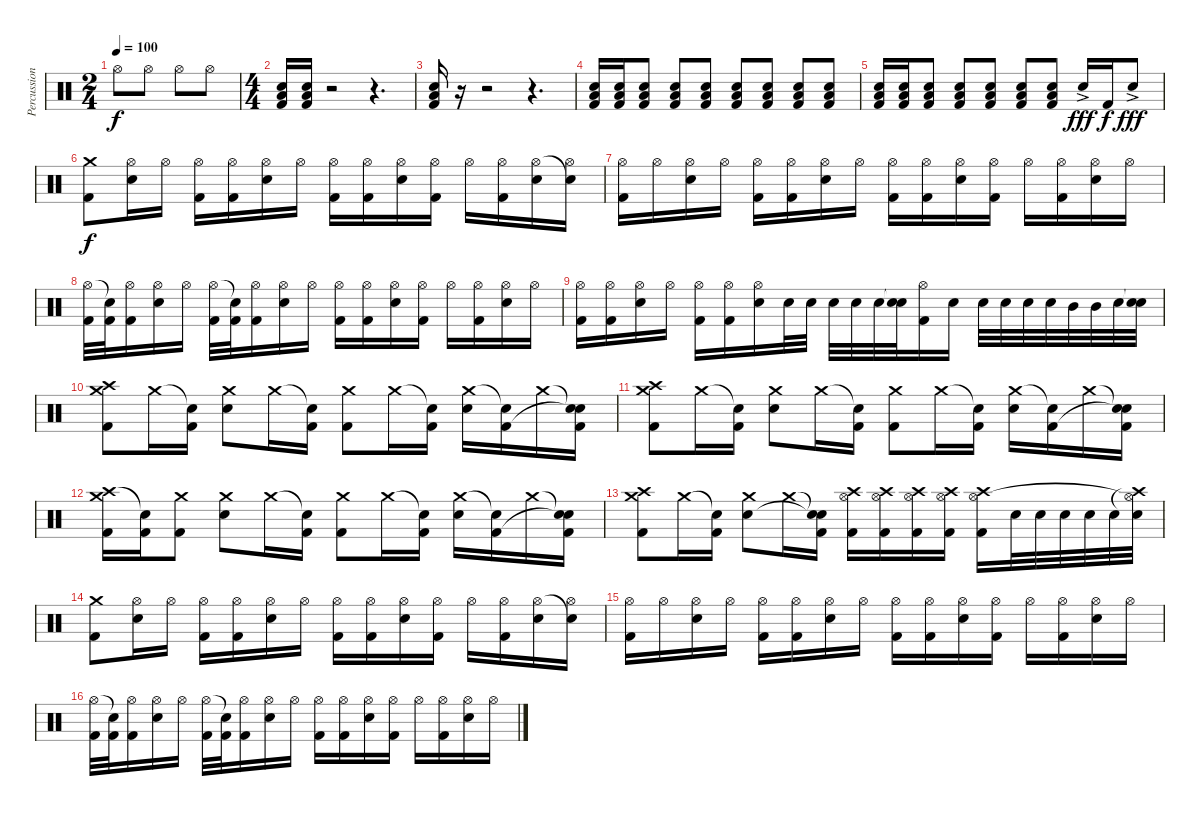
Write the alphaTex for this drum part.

\track ("Percussion" "Percussion") {instrument percussion}
\staff {score}
\articulation defaults
\ts (2 4)
\tempo 100
\clef neutral
\ks c "Hi-Hat (open)".8{dy f} "Hi-Hat (open)".8 "Hi-Hat (open)".8 "Hi-Hat (open)".8
|
\ts (4 4)
("Electric Snare (hit)" "Low Floor Tom (hit)" "Kick (hit) 2").16 ("Electric Snare (hit)" "Low Floor Tom (hit)" "Kick (hit) 2").16 r.2 r.4{d} |
("Electric Snare (hit)" "Low Floor Tom (hit)" "Kick (hit) 2").16 r.16 r.2 r.4{d} |
("Electric Snare (hit)" "Low Floor Tom (hit)" "Kick (hit) 2").16 ("Electric Snare (hit)" "Low Floor Tom (hit)" "Kick (hit) 2").16 ("Electric Snare (hit)" "Low Floor Tom (hit)" "Kick (hit) 2").8 ("Electric Snare (hit)" "Low Floor Tom (hit)" "Kick (hit) 2").8 ("Electric Snare (hit)" "Low Floor Tom (hit)" "Kick (hit) 2").8 ("Electric Snare (hit)" "Low Floor Tom (hit)" "Kick (hit) 2").8 ("Electric Snare (hit)" "Low Floor Tom (hit)" "Kick (hit) 2").8 ("Electric Snare (hit)" "Low Floor Tom (hit)" "Kick (hit) 2").8 ("Electric Snare (hit)" "Low Floor Tom (hit)" "Kick (hit) 2").8 |
("Electric Snare (hit)" "Low Floor Tom (hit)" "Kick (hit) 2").16 ("Electric Snare (hit)" "Low Floor Tom (hit)" "Kick (hit) 2").16 ("Electric Snare (hit)" "Low Floor Tom (hit)" "Kick (hit) 2").8 ("Electric Snare (hit)" "Low Floor Tom (hit)" "Kick (hit) 2").8 ("Electric Snare (hit)" "Low Floor Tom (hit)" "Kick (hit) 2").8 ("Electric Snare (hit)" "Low Floor Tom (hit)" "Kick (hit) 2").8 ("Electric Snare (hit)" "Low Floor Tom (hit)" "Kick (hit) 2").8 "Electric Snare (hit)"{ac}.16{dy fff} "Kick (hit) 2".16{dy f} "Electric Snare (hit)"{ac}.8{dy fff} |
("Crash medium (hit)" "Kick (hit) 2").8{dy f} ("Hi-Hat (open)" "Electric Snare (hit)").16 "Hi-Hat (open)".16 ("Hi-Hat (open)" "Kick (hit) 2").16 ("Hi-Hat (open)" "Kick (hit) 2").16 ("Hi-Hat (open)" "Electric Snare (hit)").16 "Hi-Hat (open)".16 ("Hi-Hat (open)" "Kick (hit) 2").16 ("Hi-Hat (open)" "Kick (hit) 2").16 ("Hi-Hat (open)" "Electric Snare (hit)").16 ("Hi-Hat (open)" "Kick (hit) 2").16 "Hi-Hat (open)".16 ("Hi-Hat (open)" "Kick (hit) 2").16 ("Hi-Hat (open)" "Electric Snare (hit)").16 ("Snare (hit)"{t} "Hi-Hat (open)").16 |
("Hi-Hat (open)" "Kick (hit) 2").16 "Hi-Hat (open)".16 ("Hi-Hat (open)" "Electric Snare (hit)").16 "Hi-Hat (open)".16 ("Hi-Hat (open)" "Kick (hit) 2").16 ("Hi-Hat (open)" "Kick (hit) 2").16 ("Hi-Hat (open)" "Electric Snare (hit)").16 "Hi-Hat (open)".16 ("Hi-Hat (open)" "Kick (hit) 2").16 ("Hi-Hat (open)" "Kick (hit) 2").16 ("Hi-Hat (open)" "Electric Snare (hit)").16 ("Hi-Hat (open)" "Kick (hit) 2").16 "Hi-Hat (open)".16 ("Hi-Hat (open)" "Kick (hit) 2").16 ("Hi-Hat (open)" "Electric Snare (hit)").16 "Hi-Hat (open)".16 |
("Hi-Hat (open)" "Kick (hit) 2").32 ("Snare (hit)"{t} "Kick (hit) 2").32 ("Hi-Hat (open)" "Kick (hit) 2").16 ("Hi-Hat (open)" "Electric Snare (hit)").16 "Hi-Hat (open)".16 ("Hi-Hat (open)" "Kick (hit) 2").32 ("Snare (hit)"{t} "Kick (hit) 2").32 ("Hi-Hat (open)" "Kick (hit) 2").16 ("Hi-Hat (open)" "Electric Snare (hit)").16 "Hi-Hat (open)".16 ("Hi-Hat (open)" "Kick (hit) 2").16 ("Hi-Hat (open)" "Kick (hit) 2").16 ("Hi-Hat (open)" "Electric Snare (hit)").16 ("Hi-Hat (open)" "Kick (hit) 2").16 "Hi-Hat (open)".16 ("Hi-Hat (open)" "Kick (hit) 2").16 ("Hi-Hat (open)" "Electric Snare (hit)").16 "Hi-Hat (open)".16 |
("Hi-Hat (open)" "Kick (hit) 2").16 ("Hi-Hat (open)" "Kick (hit) 2").16 ("Hi-Hat (open)" "Electric Snare (hit)").16 "Hi-Hat (open)".16 ("Hi-Hat (open)" "Kick (hit) 2").16 ("Hi-Hat (open)" "Kick (hit) 2").16 ("Hi-Hat (open)" "Electric Snare (hit)").16 "Electric Snare (hit)".32 "Electric Snare (hit)".32 "Electric Snare (hit)".32 "Electric Snare (hit)".32 "Electric Snare (hit)".32 ("Snare (hit)"{t} "Electric Snare (hit)").32 ("Hi-Hat (open)" "Kick (hit) 2").16 "Electric Snare (hit)".16 "Electric Snare (hit)".32 "Electric Snare (hit)".32 "Electric Snare (hit)".32 "Electric Snare (hit)".32 "Mid Tom (hit)".32 "Mid Tom (hit)".32 "Electric Snare (hit)".32 ("Snare (hit)"{t} "Electric Snare (hit)").32 |
("Crash high (hit)" "Crash medium (hit)" "Kick (hit) 2").8 "Crash medium (hit)".16 ("Snare (hit)"{t} "Kick (hit) 2").16 ("Crash medium (hit)" "Electric Snare (hit)").8 "Crash medium (hit)".16 ("Snare (hit)"{t} "Kick (hit) 2").16 ("Crash medium (hit)" "Kick (hit) 2").8 "Crash medium (hit)".16 ("Snare (hit)"{t} "Kick (hit) 2").16 ("Crash medium (hit)" "Electric Snare (hit)").16 ("Snare (hit)"{t} "Kick (hit) 2").16 "Crash medium (hit)".16 ("Snare (hit)"{t} "Snare (hit)"{t} "Kick (hit) 2").16 |
("Crash high (hit)" "Crash medium (hit)" "Kick (hit) 2").8 "Crash medium (hit)".16 ("Snare (hit)"{t} "Kick (hit) 2").16 ("Crash medium (hit)" "Electric Snare (hit)").8 "Crash medium (hit)".16 ("Snare (hit)"{t} "Kick (hit) 2").16 ("Crash medium (hit)" "Kick (hit) 2").8 "Crash medium (hit)".16 ("Snare (hit)"{t} "Kick (hit) 2").16 ("Crash medium (hit)" "Electric Snare (hit)").16 ("Snare (hit)"{t} "Kick (hit) 2").16 "Crash medium (hit)".16 ("Snare (hit)"{t} "Snare (hit)"{t} "Kick (hit) 2").16 |
("Crash high (hit)" "Crash medium (hit)" "Kick (hit) 2").16 ("Snare (hit)"{t} "Kick (hit) 2").16 ("Crash medium (hit)" "Kick (hit) 2").8 ("Crash medium (hit)" "Electric Snare (hit)").8 "Crash medium (hit)".16 ("Snare (hit)"{t} "Kick (hit) 2").16 ("Crash medium (hit)" "Kick (hit) 2").8 "Crash medium (hit)".16 ("Snare (hit)"{t} "Kick (hit) 2").16 ("Crash medium (hit)" "Electric Snare (hit)").16 ("Snare (hit)"{t} "Kick (hit) 2").16 "Crash medium (hit)".16 ("Snare (hit)"{t} "Snare (hit)"{t} "Kick (hit) 2").16 |
("Crash high (hit)" "Crash medium (hit)" "Kick (hit) 2").8 "Crash medium (hit)".16 ("Snare (hit)"{t} "Kick (hit) 2").16 ("Crash medium (hit)" "Electric Snare (hit)").8 "Crash medium (hit)".16 ("Snare (hit)"{t} "Snare (hit)"{t} "Kick (hit) 2").16 ("Crash high (hit)" "Hi-Hat (open)" "Kick (hit) 2").16 ("Crash high (hit)" "Hi-Hat (open)" "Kick (hit) 2").16 ("Crash high (hit)" "Hi-Hat (open)" "Kick (hit) 2").16 ("Crash high (hit)" "Hi-Hat (open)" "Kick (hit) 2").16 ("Crash high (hit)" "Hi-Hat (open)" "Kick (hit) 2").16 "Electric Snare (hit)".32 "Electric Snare (hit)".32 "Electric Snare (hit)".32 "Electric Snare (hit)".32 "Electric Snare (hit)".32 ("Crash high (hit)"{t} "Hi-Hat (open)"{t} "Electric Snare (hit)").32 |
("Crash medium (hit)" "Kick (hit) 2").8 ("Hi-Hat (open)" "Electric Snare (hit)").16 "Hi-Hat (open)".16 ("Hi-Hat (open)" "Kick (hit) 2").16 ("Hi-Hat (open)" "Kick (hit) 2").16 ("Hi-Hat (open)" "Electric Snare (hit)").16 "Hi-Hat (open)".16 ("Hi-Hat (open)" "Kick (hit) 2").16 ("Hi-Hat (open)" "Kick (hit) 2").16 ("Hi-Hat (open)" "Electric Snare (hit)").16 ("Hi-Hat (open)" "Kick (hit) 2").16 "Hi-Hat (open)".16 ("Hi-Hat (open)" "Kick (hit) 2").16 ("Hi-Hat (open)" "Electric Snare (hit)").16 ("Snare (hit)"{t} "Hi-Hat (open)").16 |
("Hi-Hat (open)" "Kick (hit) 2").16 "Hi-Hat (open)".16 ("Hi-Hat (open)" "Electric Snare (hit)").16 "Hi-Hat (open)".16 ("Hi-Hat (open)" "Kick (hit) 2").16 ("Hi-Hat (open)" "Kick (hit) 2").16 ("Hi-Hat (open)" "Electric Snare (hit)").16 "Hi-Hat (open)".16 ("Hi-Hat (open)" "Kick (hit) 2").16 ("Hi-Hat (open)" "Kick (hit) 2").16 ("Hi-Hat (open)" "Electric Snare (hit)").16 ("Hi-Hat (open)" "Kick (hit) 2").16 "Hi-Hat (open)".16 ("Hi-Hat (open)" "Kick (hit) 2").16 ("Hi-Hat (open)" "Electric Snare (hit)").16 "Hi-Hat (open)".16 |
("Hi-Hat (open)" "Kick (hit) 2").32 ("Snare (hit)"{t} "Kick (hit) 2").32 ("Hi-Hat (open)" "Kick (hit) 2").16 ("Hi-Hat (open)" "Electric Snare (hit)").16 "Hi-Hat (open)".16 ("Hi-Hat (open)" "Kick (hit) 2").32 ("Snare (hit)"{t} "Kick (hit) 2").32 ("Hi-Hat (open)" "Kick (hit) 2").16 ("Hi-Hat (open)" "Electric Snare (hit)").16 "Hi-Hat (open)".16 ("Hi-Hat (open)" "Kick (hit) 2").16 ("Hi-Hat (open)" "Kick (hit) 2").16 ("Hi-Hat (open)" "Electric Snare (hit)").16 ("Hi-Hat (open)" "Kick (hit) 2").16 "Hi-Hat (open)".16 ("Hi-Hat (open)" "Kick (hit) 2").16 ("Hi-Hat (open)" "Electric Snare (hit)").16 "Hi-Hat (open)".16
